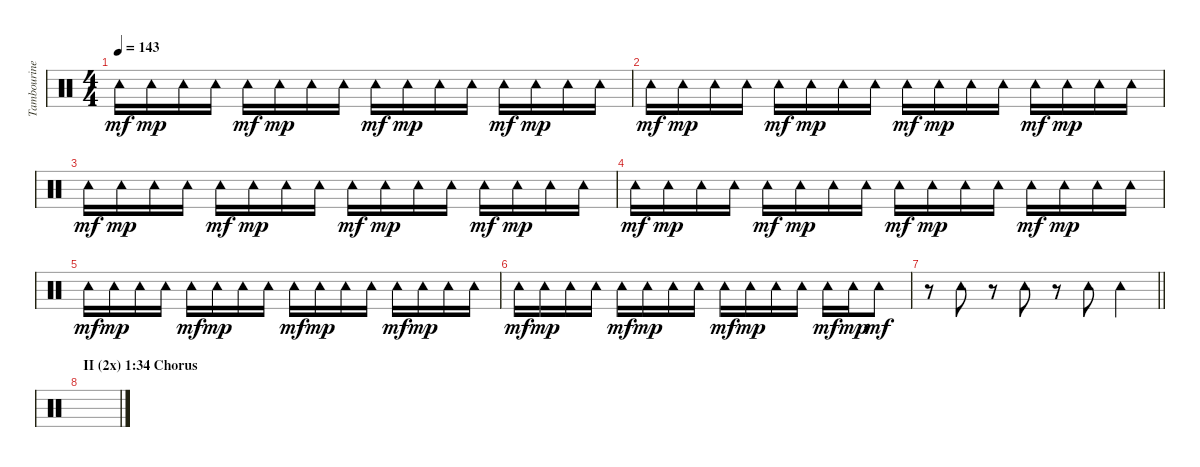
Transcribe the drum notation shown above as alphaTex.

\track ("Tambourine ( I Verse + IV Solo)" "Tambourine") {instrument percussion}
\staff {score}
\articulation defaults
\ts (4 4)
\tempo 143
\clef neutral
\ks c "Tambourine (hit)".16{dy mf} "Tambourine (hit)".16{dy mp} "Tambourine (hit)".16 "Tambourine (hit)".16 "Tambourine (hit)".16{dy mf} "Tambourine (hit)".16{dy mp} "Tambourine (hit)".16 "Tambourine (hit)".16 "Tambourine (hit)".16{dy mf} "Tambourine (hit)".16{dy mp} "Tambourine (hit)".16 "Tambourine (hit)".16 "Tambourine (hit)".16{dy mf} "Tambourine (hit)".16{dy mp} "Tambourine (hit)".16 "Tambourine (hit)".16
|
"Tambourine (hit)".16{dy mf} "Tambourine (hit)".16{dy mp} "Tambourine (hit)".16 "Tambourine (hit)".16 "Tambourine (hit)".16{dy mf} "Tambourine (hit)".16{dy mp} "Tambourine (hit)".16 "Tambourine (hit)".16 "Tambourine (hit)".16{dy mf} "Tambourine (hit)".16{dy mp} "Tambourine (hit)".16 "Tambourine (hit)".16 "Tambourine (hit)".16{dy mf} "Tambourine (hit)".16{dy mp} "Tambourine (hit)".16 "Tambourine (hit)".16 |
"Tambourine (hit)".16{dy mf} "Tambourine (hit)".16{dy mp} "Tambourine (hit)".16 "Tambourine (hit)".16 "Tambourine (hit)".16{dy mf} "Tambourine (hit)".16{dy mp} "Tambourine (hit)".16 "Tambourine (hit)".16 "Tambourine (hit)".16{dy mf} "Tambourine (hit)".16{dy mp} "Tambourine (hit)".16 "Tambourine (hit)".16 "Tambourine (hit)".16{dy mf} "Tambourine (hit)".16{dy mp} "Tambourine (hit)".16 "Tambourine (hit)".16 |
"Tambourine (hit)".16{dy mf} "Tambourine (hit)".16{dy mp} "Tambourine (hit)".16 "Tambourine (hit)".16 "Tambourine (hit)".16{dy mf} "Tambourine (hit)".16{dy mp} "Tambourine (hit)".16 "Tambourine (hit)".16 "Tambourine (hit)".16{dy mf} "Tambourine (hit)".16{dy mp} "Tambourine (hit)".16 "Tambourine (hit)".16 "Tambourine (hit)".16{dy mf} "Tambourine (hit)".16{dy mp} "Tambourine (hit)".16 "Tambourine (hit)".16 |
"Tambourine (hit)".16{dy mf} "Tambourine (hit)".16{dy mp} "Tambourine (hit)".16 "Tambourine (hit)".16 "Tambourine (hit)".16{dy mf} "Tambourine (hit)".16{dy mp} "Tambourine (hit)".16 "Tambourine (hit)".16 "Tambourine (hit)".16{dy mf} "Tambourine (hit)".16{dy mp} "Tambourine (hit)".16 "Tambourine (hit)".16 "Tambourine (hit)".16{dy mf} "Tambourine (hit)".16{dy mp} "Tambourine (hit)".16 "Tambourine (hit)".16 |
"Tambourine (hit)".16{dy mf} "Tambourine (hit)".16{dy mp} "Tambourine (hit)".16 "Tambourine (hit)".16 "Tambourine (hit)".16{dy mf} "Tambourine (hit)".16{dy mp} "Tambourine (hit)".16 "Tambourine (hit)".16 "Tambourine (hit)".16{dy mf} "Tambourine (hit)".16{dy mp} "Tambourine (hit)".16 "Tambourine (hit)".16 "Tambourine (hit)".16{dy mf} "Tambourine (hit)".16{dy mp} "Tambourine (hit)".8{dy mf} |
\barLineRight lightlight
r.8 "Tambourine (hit)".8 r.8 "Tambourine (hit)".8 r.8 "Tambourine (hit)".8 "Tambourine (hit)".4 |
\section ("" "II (2x) 1:34 Chorus")
